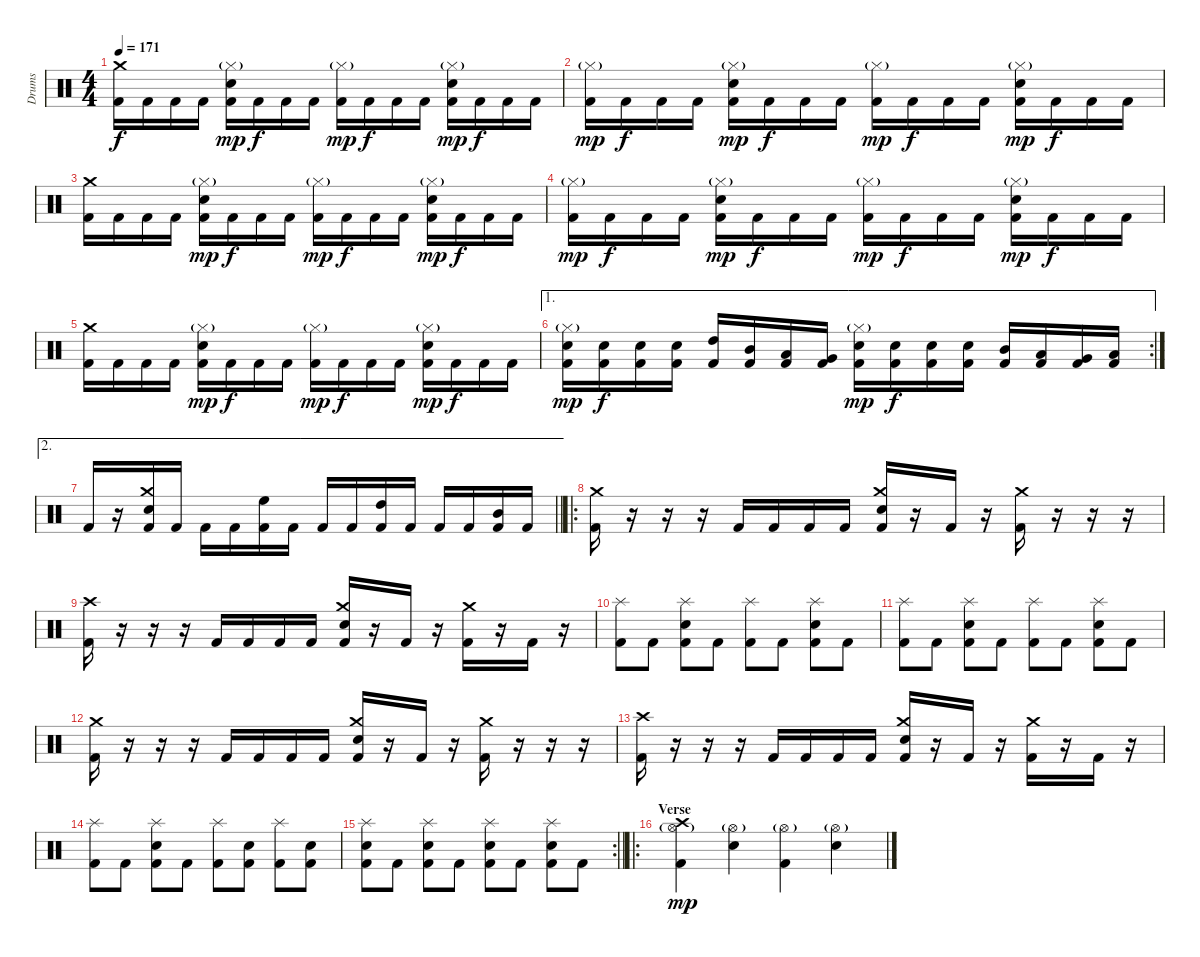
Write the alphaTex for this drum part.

\track ("Drums" "Drums") {instrument percussion}
\staff {score}
\articulation defaults
\ts (4 4)
\tempo 171
\clef neutral
\ks c
("Kick (hit) 2" "Crash medium (hit)").16{dy f} "Kick (hit) 2".16 "Kick (hit) 2".16 "Kick (hit) 2".16 ("Kick (hit) 2" "Snare (hit) 2" "Hi-Hat (closed)"{g}).16{dy mp} "Kick (hit) 2".16{dy f} "Kick (hit) 2".16 "Kick (hit) 2".16 ("Kick (hit) 2" "Hi-Hat (closed)"{g}).16{dy mp} "Kick (hit) 2".16{dy f} "Kick (hit) 2".16 "Kick (hit) 2".16 ("Kick (hit) 2" "Snare (hit) 2" "Hi-Hat (closed)"{g}).16{dy mp} "Kick (hit) 2".16{dy f} "Kick (hit) 2".16 "Kick (hit) 2".16 |
("Kick (hit) 2" "Hi-Hat (closed)"{g}).16{dy mp} "Kick (hit) 2".16{dy f} "Kick (hit) 2".16 "Kick (hit) 2".16 ("Kick (hit) 2" "Snare (hit) 2" "Hi-Hat (closed)"{g}).16{dy mp} "Kick (hit) 2".16{dy f} "Kick (hit) 2".16 "Kick (hit) 2".16 ("Kick (hit) 2" "Hi-Hat (closed)"{g}).16{dy mp} "Kick (hit) 2".16{dy f} "Kick (hit) 2".16 "Kick (hit) 2".16 ("Kick (hit) 2" "Snare (hit) 2" "Hi-Hat (closed)"{g}).16{dy mp} "Kick (hit) 2".16{dy f} "Kick (hit) 2".16 "Kick (hit) 2".16 |
("Kick (hit) 2" "Crash medium (hit)").16 "Kick (hit) 2".16 "Kick (hit) 2".16 "Kick (hit) 2".16 ("Kick (hit) 2" "Snare (hit) 2" "Hi-Hat (closed)"{g}).16{dy mp} "Kick (hit) 2".16{dy f} "Kick (hit) 2".16 "Kick (hit) 2".16 ("Kick (hit) 2" "Hi-Hat (closed)"{g}).16{dy mp} "Kick (hit) 2".16{dy f} "Kick (hit) 2".16 "Kick (hit) 2".16 ("Kick (hit) 2" "Snare (hit) 2" "Hi-Hat (closed)"{g}).16{dy mp} "Kick (hit) 2".16{dy f} "Kick (hit) 2".16 "Kick (hit) 2".16 |
("Kick (hit) 2" "Hi-Hat (closed)"{g}).16{dy mp} "Kick (hit) 2".16{dy f} "Kick (hit) 2".16 "Kick (hit) 2".16 ("Kick (hit) 2" "Snare (hit) 2" "Hi-Hat (closed)"{g}).16{dy mp} "Kick (hit) 2".16{dy f} "Kick (hit) 2".16 "Kick (hit) 2".16 ("Kick (hit) 2" "Hi-Hat (closed)"{g}).16{dy mp} "Kick (hit) 2".16{dy f} "Kick (hit) 2".16 "Kick (hit) 2".16 ("Kick (hit) 2" "Snare (hit) 2" "Hi-Hat (closed)"{g}).16{dy mp} "Kick (hit) 2".16{dy f} "Kick (hit) 2".16 "Kick (hit) 2".16 |
("Kick (hit) 2" "Crash medium (hit)").16 "Kick (hit) 2".16 "Kick (hit) 2".16 "Kick (hit) 2".16 ("Kick (hit) 2" "Snare (hit) 2" "Hi-Hat (closed)"{g}).16{dy mp} "Kick (hit) 2".16{dy f} "Kick (hit) 2".16 "Kick (hit) 2".16 ("Kick (hit) 2" "Hi-Hat (closed)"{g}).16{dy mp} "Kick (hit) 2".16{dy f} "Kick (hit) 2".16 "Kick (hit) 2".16 ("Kick (hit) 2" "Snare (hit) 2" "Hi-Hat (closed)"{g}).16{dy mp} "Kick (hit) 2".16{dy f} "Kick (hit) 2".16 "Kick (hit) 2".16 |
\ae 1
\rc 2
("Kick (hit) 2" "Snare (hit) 2" "Hi-Hat (closed)"{g}).16{dy mp} ("Kick (hit) 2" "Snare (hit) 2").16{dy f} ("Kick (hit) 2" "Snare (hit) 2").16 ("Kick (hit) 2" "Snare (hit) 2").16 ("Kick (hit) 2" "High Tom (hit)").16 ("Kick (hit) 2" "Mid Tom (hit)").16 ("Kick (hit) 2" "Low Tom (hit)").16 ("Kick (hit) 2" "Very Low Tom (hit)").16 ("Kick (hit) 2" "Snare (hit) 2" "Hi-Hat (closed)"{g}).16{dy mp} ("Kick (hit) 2" "Snare (hit) 2").16{dy f} ("Kick (hit) 2" "Snare (hit) 2").16 ("Kick (hit) 2" "Snare (hit) 2").16 ("Kick (hit) 2" "Mid Tom (hit)").16 ("Kick (hit) 2" "Low Tom (hit)").16 ("Kick (hit) 2" "Very Low Tom (hit)").16 ("Kick (hit) 2" "Low Floor Tom (hit)").16 |
\ae 2
\barLineRight lightlight "Kick (hit) 2".16
r.16 ("Kick (hit) 2" "Snare (hit) 2" "Crash medium (hit)").16 "Kick (hit) 2".16 "Kick (hit) 2".16 "Kick (hit) 2".16 ("Kick (hit) 2" "High Floor Tom (hit)").16 "Kick (hit) 2".16 "Kick (hit) 2".16 "Kick (hit) 2".16 ("Kick (hit) 2" "High Tom (hit)").16 "Kick (hit) 2".16 "Kick (hit) 2".16 "Kick (hit) 2".16 ("Kick (hit) 2" "Mid Tom (hit)").16 "Kick (hit) 2".16 |
\ro
\section ("" "")
("Kick (hit) 2" "Crash medium (hit)").16 r.16 r.16 r.16 "Kick (hit) 2".16 "Kick (hit) 2".16 "Kick (hit) 2".16 "Kick (hit) 2".16 ("Kick (hit) 2" "Snare (hit) 2" "Crash medium (hit)").16 r.16 "Kick (hit) 2".16 r.16 ("Kick (hit) 2" "Crash medium (hit)").16 r.16 r.16 r.16 |
("Kick (hit) 2" "Crash high (hit)").16 r.16 r.16 r.16 "Kick (hit) 2".16 "Kick (hit) 2".16 "Kick (hit) 2".16 "Kick (hit) 2".16 ("Kick (hit) 2" "Snare (hit) 2" "Crash medium (hit)").16 r.16 "Kick (hit) 2".16 r.16 ("Kick (hit) 2" "Crash medium (hit)").16 r.16 "Kick (hit) 2".16 r.16 |
("Kick (hit) 2" "Splash (hit)").8 "Kick (hit) 2".8 ("Kick (hit) 2" "Snare (hit) 2" "Splash (hit)").8 "Kick (hit) 2".8 ("Kick (hit) 2" "Splash (hit)").8 "Kick (hit) 2".8 ("Kick (hit) 2" "Snare (hit) 2" "Splash (hit)").8 "Kick (hit) 2".8 |
("Kick (hit) 2" "Splash (hit)").8 "Kick (hit) 2".8 ("Kick (hit) 2" "Snare (hit) 2" "Splash (hit)").8 "Kick (hit) 2".8 ("Kick (hit) 2" "Splash (hit)").8 "Kick (hit) 2".8 ("Kick (hit) 2" "Snare (hit) 2" "Splash (hit)").8 "Kick (hit) 2".8 |
("Kick (hit) 2" "Crash medium (hit)").16 r.16 r.16 r.16 "Kick (hit) 2".16 "Kick (hit) 2".16 "Kick (hit) 2".16 "Kick (hit) 2".16 ("Kick (hit) 2" "Snare (hit) 2" "Crash medium (hit)").16 r.16 "Kick (hit) 2".16 r.16 ("Kick (hit) 2" "Crash medium (hit)").16 r.16 r.16 r.16 |
("Kick (hit) 2" "Crash high (hit)").16 r.16 r.16 r.16 "Kick (hit) 2".16 "Kick (hit) 2".16 "Kick (hit) 2".16 "Kick (hit) 2".16 ("Kick (hit) 2" "Snare (hit) 2" "Crash medium (hit)").16 r.16 "Kick (hit) 2".16 r.16 ("Kick (hit) 2" "Crash medium (hit)").16 r.16 "Kick (hit) 2".16 r.16 |
("Kick (hit) 2" "Splash (hit)").8 "Kick (hit) 2".8 ("Kick (hit) 2" "Snare (hit) 2" "Splash (hit)").8 "Kick (hit) 2".8 ("Kick (hit) 2" "Splash (hit)").8 ("Kick (hit) 2" "Snare (hit) 2").8 ("Kick (hit) 2" "Splash (hit)").8 ("Kick (hit) 2" "Snare (hit) 2").8 |
\rc 2
\barLineRight lightlight
("Kick (hit) 2" "Snare (hit) 2" "Splash (hit)").8 "Kick (hit) 2".8 ("Kick (hit) 2" "Snare (hit) 2" "Splash (hit)").8 "Kick (hit) 2".8 ("Kick (hit) 2" "Snare (hit) 2" "Splash (hit)").8 "Kick (hit) 2".8 ("Kick (hit) 2" "Snare (hit) 2" "Splash (hit)").8 "Kick (hit) 2".8 |
\ro
\section ("" "Verse")
("Kick (hit) 2" "Hi-Hat (open)"{g} "Crash high (hit)").4{dy mp} ("Snare (hit) 2" "Hi-Hat (open)"{g}).4 ("Kick (hit) 2" "Hi-Hat (open)"{g}).4 ("Snare (hit) 2" "Hi-Hat (open)"{g}).4
